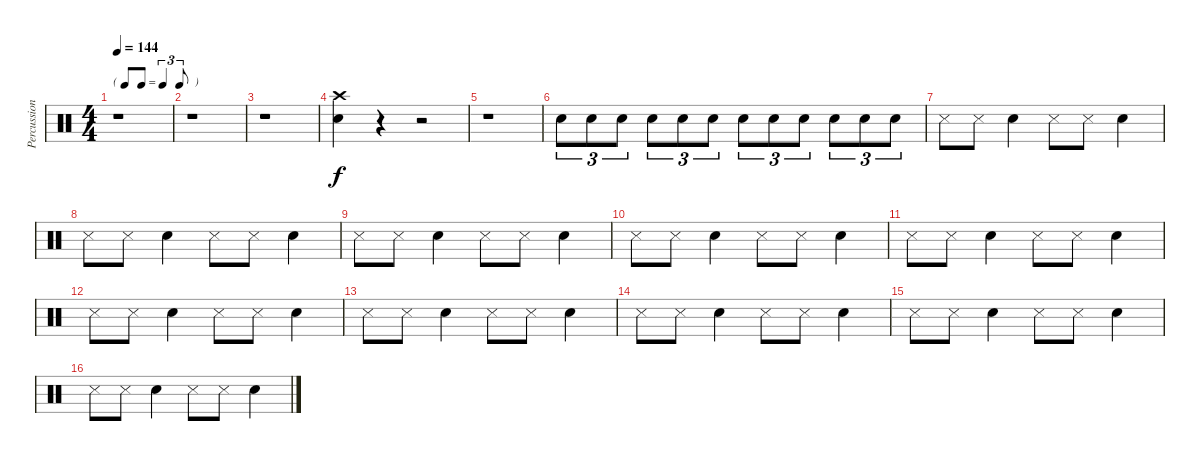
\track ("Percussions" "Percussion") {instrument percussion}
\staff {score}
\articulation defaults
\ts (4 4)
\tf triplet8th
\tempo 144
\clef neutral
\ks c
r.1{dy f} |
r.1 |
r.1 |
("Snare (hit) 2" "Crash high (hit)").4 r.4 r.2 |
r.1 |
"Snare (hit) 2".8{tu (3 2)} "Snare (hit) 2".8{tu (3 2)} "Snare (hit) 2".8{tu (3 2)} "Snare (hit) 2".8{tu (3 2)} "Snare (hit) 2".8{tu (3 2)} "Snare (hit) 2".8{tu (3 2)} "Snare (hit) 2".8{tu (3 2)} "Snare (hit) 2".8{tu (3 2)} "Snare (hit) 2".8{tu (3 2)} "Snare (hit) 2".8{tu (3 2)} "Snare (hit) 2".8{tu (3 2)} "Snare (hit) 2".8{tu (3 2)} |
"Snare (side stick) 3".8 "Snare (side stick) 3".8 "Snare (hit) 2".4 "Snare (side stick) 3".8 "Snare (side stick) 3".8 "Snare (hit) 2".4 |
"Snare (side stick) 3".8 "Snare (side stick) 3".8 "Snare (hit) 2".4 "Snare (side stick) 3".8 "Snare (side stick) 3".8 "Snare (hit) 2".4 |
"Snare (side stick) 3".8 "Snare (side stick) 3".8 "Snare (hit) 2".4 "Snare (side stick) 3".8 "Snare (side stick) 3".8 "Snare (hit) 2".4 |
"Snare (side stick) 3".8 "Snare (side stick) 3".8 "Snare (hit) 2".4 "Snare (side stick) 3".8 "Snare (side stick) 3".8 "Snare (hit) 2".4 |
"Snare (side stick) 3".8 "Snare (side stick) 3".8 "Snare (hit) 2".4 "Snare (side stick) 3".8 "Snare (side stick) 3".8 "Snare (hit) 2".4 |
"Snare (side stick) 3".8 "Snare (side stick) 3".8 "Snare (hit) 2".4 "Snare (side stick) 3".8 "Snare (side stick) 3".8 "Snare (hit) 2".4 |
"Snare (side stick) 3".8 "Snare (side stick) 3".8 "Snare (hit) 2".4 "Snare (side stick) 3".8 "Snare (side stick) 3".8 "Snare (hit) 2".4 |
"Snare (side stick) 3".8 "Snare (side stick) 3".8 "Snare (hit) 2".4 "Snare (side stick) 3".8 "Snare (side stick) 3".8 "Snare (hit) 2".4 |
"Snare (side stick) 3".8 "Snare (side stick) 3".8 "Snare (hit) 2".4 "Snare (side stick) 3".8 "Snare (side stick) 3".8 "Snare (hit) 2".4 |
"Snare (side stick) 3".8 "Snare (side stick) 3".8 "Snare (hit) 2".4 "Snare (side stick) 3".8 "Snare (side stick) 3".8 "Snare (hit) 2".4
